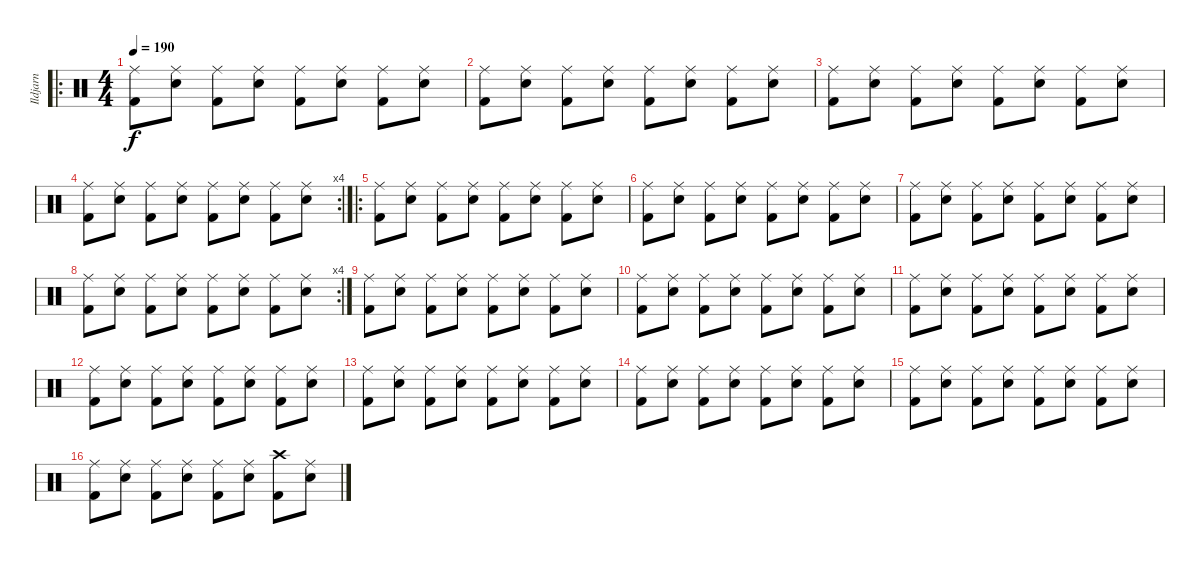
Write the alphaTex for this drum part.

\track ("Ildjarn" "Ildjarn") {instrument percussion}
\staff {score}
\articulation defaults
\ro
\ts (4 4)
\tempo 190
\clef neutral
\ks c
("Ride (middle)" "Kick (hit) 2").8{dy f} ("Ride (middle)" "Snare (hit) 2").8 ("Ride (middle)" "Kick (hit) 2").8 ("Ride (middle)" "Snare (hit) 2").8 ("Ride (middle)" "Kick (hit) 2").8 ("Ride (middle)" "Snare (hit) 2").8 ("Ride (middle)" "Kick (hit) 2").8 ("Ride (middle)" "Snare (hit) 2").8 |
("Ride (middle)" "Kick (hit) 2").8 ("Ride (middle)" "Snare (hit) 2").8 ("Ride (middle)" "Kick (hit) 2").8 ("Ride (middle)" "Snare (hit) 2").8 ("Ride (middle)" "Kick (hit) 2").8 ("Ride (middle)" "Snare (hit) 2").8 ("Ride (middle)" "Kick (hit) 2").8 ("Ride (middle)" "Snare (hit) 2").8 |
("Ride (middle)" "Kick (hit) 2").8 ("Ride (middle)" "Snare (hit) 2").8 ("Ride (middle)" "Kick (hit) 2").8 ("Ride (middle)" "Snare (hit) 2").8 ("Ride (middle)" "Kick (hit) 2").8 ("Ride (middle)" "Snare (hit) 2").8 ("Ride (middle)" "Kick (hit) 2").8 ("Ride (middle)" "Snare (hit) 2").8 |
\rc 4
("Ride (middle)" "Kick (hit) 2").8 ("Ride (middle)" "Snare (hit) 2").8 ("Ride (middle)" "Kick (hit) 2").8 ("Ride (middle)" "Snare (hit) 2").8 ("Ride (middle)" "Kick (hit) 2").8 ("Ride (middle)" "Snare (hit) 2").8 ("Ride (middle)" "Kick (hit) 2").8 ("Ride (middle)" "Snare (hit) 2").8 |
\ro
("Ride (middle)" "Kick (hit) 2").8 ("Ride (middle)" "Snare (hit) 2").8 ("Ride (middle)" "Kick (hit) 2").8 ("Ride (middle)" "Snare (hit) 2").8 ("Ride (middle)" "Kick (hit) 2").8 ("Ride (middle)" "Snare (hit) 2").8 ("Ride (middle)" "Kick (hit) 2").8 ("Ride (middle)" "Snare (hit) 2").8 |
("Ride (middle)" "Kick (hit) 2").8 ("Ride (middle)" "Snare (hit) 2").8 ("Ride (middle)" "Kick (hit) 2").8 ("Ride (middle)" "Snare (hit) 2").8 ("Ride (middle)" "Kick (hit) 2").8 ("Ride (middle)" "Snare (hit) 2").8 ("Ride (middle)" "Kick (hit) 2").8 ("Ride (middle)" "Snare (hit) 2").8 |
("Ride (middle)" "Kick (hit) 2").8 ("Ride (middle)" "Snare (hit) 2").8 ("Ride (middle)" "Kick (hit) 2").8 ("Ride (middle)" "Snare (hit) 2").8 ("Ride (middle)" "Kick (hit) 2").8 ("Ride (middle)" "Snare (hit) 2").8 ("Ride (middle)" "Kick (hit) 2").8 ("Ride (middle)" "Snare (hit) 2").8 |
\rc 4
("Ride (middle)" "Kick (hit) 2").8 ("Ride (middle)" "Snare (hit) 2").8 ("Ride (middle)" "Kick (hit) 2").8 ("Ride (middle)" "Snare (hit) 2").8 ("Ride (middle)" "Kick (hit) 2").8 ("Ride (middle)" "Snare (hit) 2").8 ("Ride (middle)" "Kick (hit) 2").8 ("Ride (middle)" "Snare (hit) 2").8 |
("Ride (middle)" "Kick (hit) 2").8 ("Ride (middle)" "Snare (hit) 2").8 ("Ride (middle)" "Kick (hit) 2").8 ("Ride (middle)" "Snare (hit) 2").8 ("Ride (middle)" "Kick (hit) 2").8 ("Ride (middle)" "Snare (hit) 2").8 ("Ride (middle)" "Kick (hit) 2").8 ("Ride (middle)" "Snare (hit) 2").8 |
("Ride (middle)" "Kick (hit) 2").8 ("Ride (middle)" "Snare (hit) 2").8 ("Ride (middle)" "Kick (hit) 2").8 ("Ride (middle)" "Snare (hit) 2").8 ("Ride (middle)" "Kick (hit) 2").8 ("Ride (middle)" "Snare (hit) 2").8 ("Ride (middle)" "Kick (hit) 2").8 ("Ride (middle)" "Snare (hit) 2").8 |
("Ride (middle)" "Kick (hit) 2").8 ("Ride (middle)" "Snare (hit) 2").8 ("Ride (middle)" "Kick (hit) 2").8 ("Ride (middle)" "Snare (hit) 2").8 ("Ride (middle)" "Kick (hit) 2").8 ("Ride (middle)" "Snare (hit) 2").8 ("Ride (middle)" "Kick (hit) 2").8 ("Ride (middle)" "Snare (hit) 2").8 |
("Ride (middle)" "Kick (hit) 2").8 ("Ride (middle)" "Snare (hit) 2").8 ("Ride (middle)" "Kick (hit) 2").8 ("Ride (middle)" "Snare (hit) 2").8 ("Ride (middle)" "Kick (hit) 2").8 ("Ride (middle)" "Snare (hit) 2").8 ("Ride (middle)" "Kick (hit) 2").8 ("Ride (middle)" "Snare (hit) 2").8 |
("Ride (middle)" "Kick (hit) 2").8 ("Ride (middle)" "Snare (hit) 2").8 ("Ride (middle)" "Kick (hit) 2").8 ("Ride (middle)" "Snare (hit) 2").8 ("Ride (middle)" "Kick (hit) 2").8 ("Ride (middle)" "Snare (hit) 2").8 ("Ride (middle)" "Kick (hit) 2").8 ("Ride (middle)" "Snare (hit) 2").8 |
("Ride (middle)" "Kick (hit) 2").8 ("Ride (middle)" "Snare (hit) 2").8 ("Ride (middle)" "Kick (hit) 2").8 ("Ride (middle)" "Snare (hit) 2").8 ("Ride (middle)" "Kick (hit) 2").8 ("Ride (middle)" "Snare (hit) 2").8 ("Ride (middle)" "Kick (hit) 2").8 ("Ride (middle)" "Snare (hit) 2").8 |
("Ride (middle)" "Kick (hit) 2").8 ("Ride (middle)" "Snare (hit) 2").8 ("Ride (middle)" "Kick (hit) 2").8 ("Ride (middle)" "Snare (hit) 2").8 ("Ride (middle)" "Kick (hit) 2").8 ("Ride (middle)" "Snare (hit) 2").8 ("Ride (middle)" "Kick (hit) 2").8 ("Ride (middle)" "Snare (hit) 2").8 |
("Ride (middle)" "Kick (hit) 2").8 ("Ride (middle)" "Snare (hit) 2").8 ("Ride (middle)" "Kick (hit) 2").8 ("Ride (middle)" "Snare (hit) 2").8 ("Ride (middle)" "Kick (hit) 2").8 ("Ride (middle)" "Snare (hit) 2").8 ("Crash high (hit)" "Kick (hit) 2").8 ("Ride (middle)" "Snare (hit) 2").8
